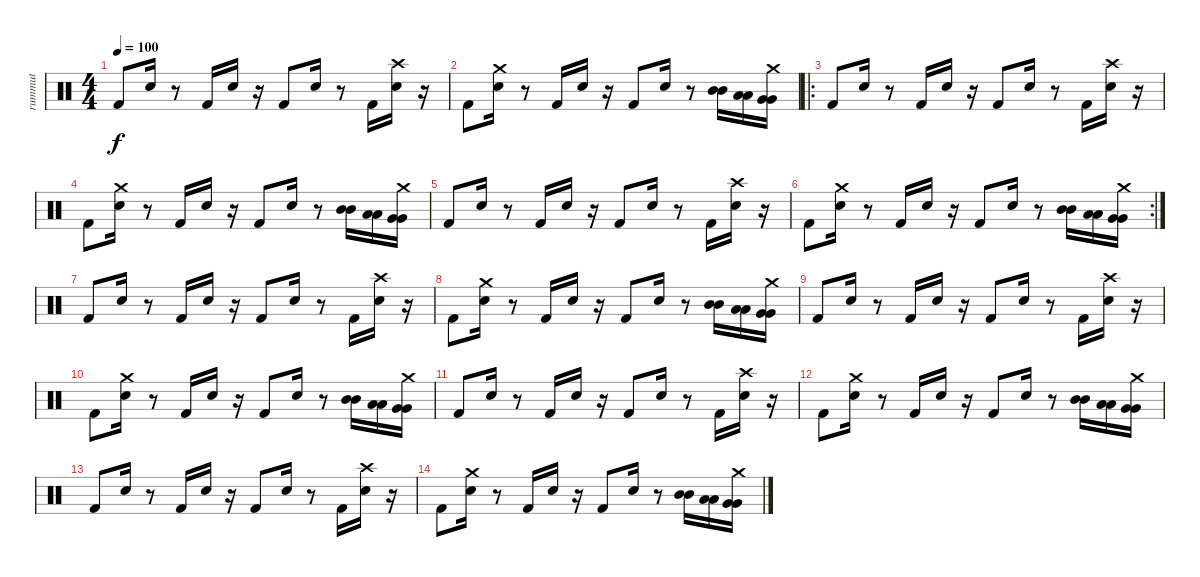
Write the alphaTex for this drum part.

\track ("rummut" "rummut") {instrument percussion}
\staff {score}
\articulation defaults
\ts (4 4)
\tempo 100
\clef neutral
\ks c "Kick (hit) 2".8{dy f} "Snare (hit) 2".16
r.8 "Kick (hit) 2".16 "Snare (hit) 2".16 r.16 "Kick (hit) 2".8 "Snare (hit) 2".16 r.8 "Kick (hit) 2".16 ("Crash high (hit)" "Snare (hit) 2").16 r.16 |
"Kick (hit) 2".8 ("Crash medium (hit)" "Snare (hit) 2").16 r.8 "Kick (hit) 2".16 "Snare (hit) 2".16 r.16 "Kick (hit) 2".8 "Snare (hit) 2".16 r.8 ("Mid Tom (hit)" "Mid Tom (hit)").16 ("Low Tom (hit)" "Low Tom (hit)").16 ("Crash medium (hit)" "Very Low Tom (hit)" "Very Low Tom (hit)").16 |
\ro "Kick (hit) 2".8 "Snare (hit) 2".16
r.8 "Kick (hit) 2".16 "Snare (hit) 2".16 r.16 "Kick (hit) 2".8 "Snare (hit) 2".16 r.8 "Kick (hit) 2".16 ("Crash high (hit)" "Snare (hit) 2").16 r.16 |
"Kick (hit) 2".8 ("Crash medium (hit)" "Snare (hit) 2").16 r.8 "Kick (hit) 2".16 "Snare (hit) 2".16 r.16 "Kick (hit) 2".8 "Snare (hit) 2".16 r.8 ("Mid Tom (hit)" "Mid Tom (hit)").16 ("Low Tom (hit)" "Low Tom (hit)").16 ("Crash medium (hit)" "Very Low Tom (hit)" "Very Low Tom (hit)").16 |
"Kick (hit) 2".8 "Snare (hit) 2".16 r.8 "Kick (hit) 2".16 "Snare (hit) 2".16 r.16 "Kick (hit) 2".8 "Snare (hit) 2".16 r.8 "Kick (hit) 2".16 ("Crash high (hit)" "Snare (hit) 2").16 r.16 |
\rc 2 "Kick (hit) 2".8
("Crash medium (hit)" "Snare (hit) 2").16 r.8 "Kick (hit) 2".16 "Snare (hit) 2".16 r.16 "Kick (hit) 2".8 "Snare (hit) 2".16 r.8 ("Mid Tom (hit)" "Mid Tom (hit)").16 ("Low Tom (hit)" "Low Tom (hit)").16 ("Crash medium (hit)" "Very Low Tom (hit)" "Very Low Tom (hit)").16 |
"Kick (hit) 2".8 "Snare (hit) 2".16 r.8 "Kick (hit) 2".16 "Snare (hit) 2".16 r.16 "Kick (hit) 2".8 "Snare (hit) 2".16 r.8 "Kick (hit) 2".16 ("Crash high (hit)" "Snare (hit) 2").16 r.16 |
"Kick (hit) 2".8 ("Crash medium (hit)" "Snare (hit) 2").16 r.8 "Kick (hit) 2".16 "Snare (hit) 2".16 r.16 "Kick (hit) 2".8 "Snare (hit) 2".16 r.8 ("Mid Tom (hit)" "Mid Tom (hit)").16 ("Low Tom (hit)" "Low Tom (hit)").16 ("Crash medium (hit)" "Very Low Tom (hit)" "Very Low Tom (hit)").16 |
"Kick (hit) 2".8 "Snare (hit) 2".16 r.8 "Kick (hit) 2".16 "Snare (hit) 2".16 r.16 "Kick (hit) 2".8 "Snare (hit) 2".16 r.8 "Kick (hit) 2".16 ("Crash high (hit)" "Snare (hit) 2").16 r.16 |
"Kick (hit) 2".8 ("Crash medium (hit)" "Snare (hit) 2").16 r.8 "Kick (hit) 2".16 "Snare (hit) 2".16 r.16 "Kick (hit) 2".8 "Snare (hit) 2".16 r.8 ("Mid Tom (hit)" "Mid Tom (hit)").16 ("Low Tom (hit)" "Low Tom (hit)").16 ("Crash medium (hit)" "Very Low Tom (hit)" "Very Low Tom (hit)").16 |
"Kick (hit) 2".8 "Snare (hit) 2".16 r.8 "Kick (hit) 2".16 "Snare (hit) 2".16 r.16 "Kick (hit) 2".8 "Snare (hit) 2".16 r.8 "Kick (hit) 2".16 ("Crash high (hit)" "Snare (hit) 2").16 r.16 |
"Kick (hit) 2".8 ("Crash medium (hit)" "Snare (hit) 2").16 r.8 "Kick (hit) 2".16 "Snare (hit) 2".16 r.16 "Kick (hit) 2".8 "Snare (hit) 2".16 r.8 ("Mid Tom (hit)" "Mid Tom (hit)").16 ("Low Tom (hit)" "Low Tom (hit)").16 ("Crash medium (hit)" "Very Low Tom (hit)" "Very Low Tom (hit)").16 |
"Kick (hit) 2".8 "Snare (hit) 2".16 r.8 "Kick (hit) 2".16 "Snare (hit) 2".16 r.16 "Kick (hit) 2".8 "Snare (hit) 2".16 r.8 "Kick (hit) 2".16 ("Crash high (hit)" "Snare (hit) 2").16 r.16 |
"Kick (hit) 2".8 ("Crash medium (hit)" "Snare (hit) 2").16 r.8 "Kick (hit) 2".16 "Snare (hit) 2".16 r.16 "Kick (hit) 2".8 "Snare (hit) 2".16 r.8 ("Mid Tom (hit)" "Mid Tom (hit)").16 ("Low Tom (hit)" "Low Tom (hit)").16 ("Crash medium (hit)" "Very Low Tom (hit)" "Very Low Tom (hit)").16
